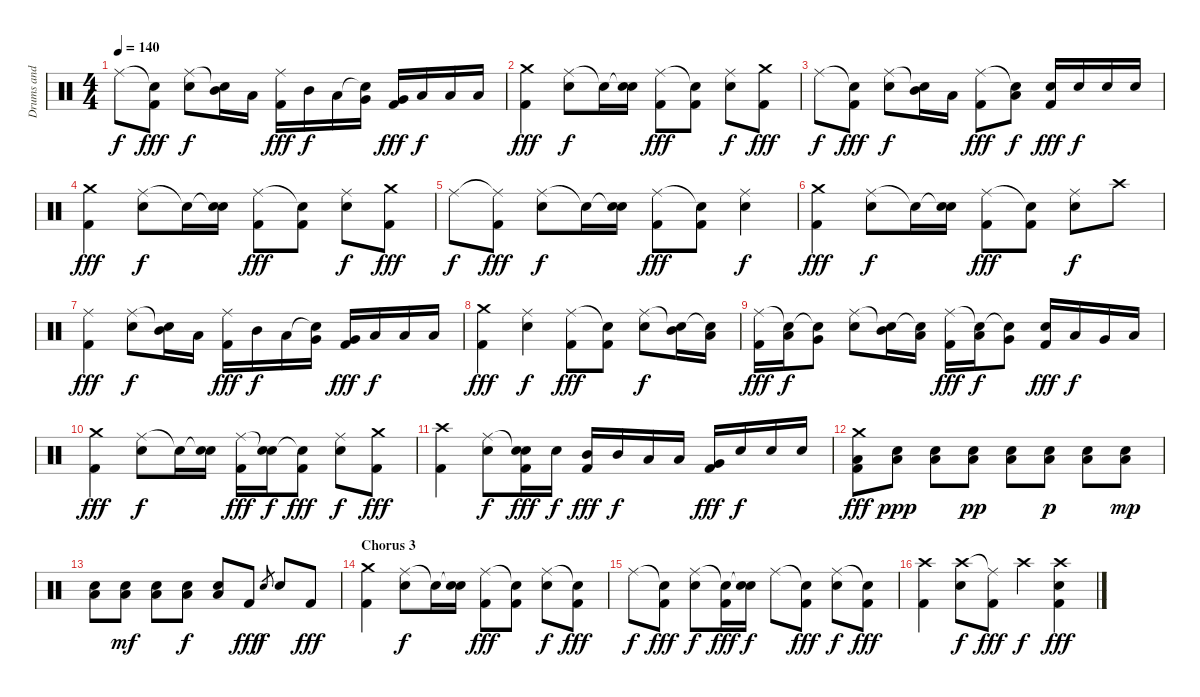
\track ("Drums and Percussion" "Drums and ") {instrument percussion}
\staff {score}
\articulation defaults
\ts (4 4)
\tempo 140
\clef neutral
\ks c "Ride (middle)".8{dy f}
("Snare (hit)"{t} "Kick (hit) 2").8{dy fff} ("Ride (middle)" "Snare (hit) 2").8{dy f} ("Snare (hit)"{t} "Mid Tom (hit)").16 "Low Tom (hit)".16 ("Ride (middle)" "Kick (hit) 2").16{dy fff} "Mid Tom (hit)".16{dy f} "Low Tom (hit)".16 ("Snare (hit)"{t} "Very Low Tom (hit)").16 ("Very Low Tom (hit)" "Kick (hit) 2").16{dy fff} "Low Floor Tom (hit)".16{dy f} "Low Floor Tom (hit)".16 "Low Floor Tom (hit)".16 |
("Crash medium (hit)" "Kick (hit) 2").4{dy fff} ("Ride (middle)" "Snare (hit) 2").8{dy f} "Snare (hit)"{t}.16 ("Snare (hit)"{t} "Snare (hit) 2").16 ("Ride (middle)" "Kick (hit) 2").8{dy fff} ("Snare (hit)"{t} "Kick (hit) 2").8 ("Ride (middle)" "Snare (hit) 2").8{dy f} ("Crash medium (hit)" "Kick (hit) 2").8{dy fff} |
"Ride (middle)".8{dy f} ("Snare (hit)"{t} "Kick (hit) 2").8{dy fff} ("Ride (middle)" "Snare (hit) 2").8{dy f} ("Snare (hit)"{t} "Mid Tom (hit)").16 "Low Tom (hit)".16 ("Ride (middle)" "Kick (hit) 2").8{dy fff} ("Snare (hit)"{t} "Low Tom (hit)").8{dy f} ("Snare (hit) 2" "Kick (hit) 2").16{dy fff} "Snare (hit) 2".16{dy f} "Snare (hit) 2".16 "Snare (hit) 2".16 |
("Crash medium (hit)" "Kick (hit) 2").4{dy fff} ("Ride (middle)" "Snare (hit) 2").8{dy f} "Snare (hit)"{t}.16 ("Snare (hit)"{t} "Snare (hit) 2").16 ("Ride (middle)" "Kick (hit) 2").8{dy fff} ("Snare (hit)"{t} "Kick (hit) 2").8 ("Ride (middle)" "Snare (hit) 2").8{dy f} ("Crash medium (hit)" "Kick (hit) 2").8{dy fff} |
"Ride (middle)".8{dy f} ("Ride (middle)"{t} "Kick (hit) 2").8{dy fff} ("Ride (middle)" "Snare (hit) 2").8{dy f} "Snare (hit)"{t}.16 ("Snare (hit)"{t} "Snare (hit) 2").16 ("Ride (middle)" "Kick (hit) 2").8{dy fff} ("Snare (hit)"{t} "Kick (hit) 2").8 ("Ride (middle)" "Snare (hit) 2").4{dy f} |
("Crash medium (hit)" "Kick (hit) 2").4{dy fff} ("Ride (middle)" "Snare (hit) 2").8{dy f} "Snare (hit)"{t}.16 ("Snare (hit)"{t} "Snare (hit) 2").16 ("Ride (middle)" "Kick (hit) 2").8{dy fff} ("Snare (hit)"{t} "Kick (hit) 2").8 ("Ride (middle)" "Snare (hit) 2").8{dy f} "Crash high (hit)".8 |
("Ride (middle)" "Kick (hit) 2").4{dy fff} ("Ride (middle)" "Snare (hit) 2").8{dy f} ("Snare (hit)"{t} "Mid Tom (hit)").16 "Low Tom (hit)".16 ("Ride (middle)" "Kick (hit) 2").16{dy fff} "Mid Tom (hit)".16{dy f} "Low Tom (hit)".16 ("Snare (hit)"{t} "Very Low Tom (hit)").16 ("Very Low Tom (hit)" "Kick (hit) 2").16{dy fff} "Low Floor Tom (hit)".16{dy f} "Low Floor Tom (hit)".16 "Low Floor Tom (hit)".16 |
("Crash medium (hit)" "Kick (hit) 2").4{dy fff} ("Ride (middle)" "Snare (hit) 2").4{dy f} ("Ride (middle)" "Kick (hit) 2").8{dy fff} ("Snare (hit)"{t} "Kick (hit) 2").8 ("Ride (middle)" "Snare (hit) 2").8{dy f} ("Snare (hit)"{t} "Mid Tom (hit)").16 ("Snare (hit)"{t} "Low Tom (hit)").16 |
("Ride (middle)" "Kick (hit) 2").16{dy fff} ("Snare (hit)"{t} "Low Tom (hit)").16{dy f} ("Snare (hit)"{t} "Very Low Tom (hit)").8 ("Ride (middle)" "Snare (hit) 2").8 ("Snare (hit)"{t} "Mid Tom (hit)").16 ("Snare (hit)"{t} "Low Tom (hit)").16 ("Ride (middle)" "Kick (hit) 2").16{dy fff} ("Snare (hit)"{t} "Low Tom (hit)").16{dy f} ("Snare (hit)"{t} "Very Low Tom (hit)").8 ("Snare (hit) 2" "Kick (hit) 2").16{dy fff} "Low Tom (hit)".16{dy f} "Very Low Tom (hit)".16 "Low Floor Tom (hit)".16 |
("Crash medium (hit)" "Kick (hit) 2").4{dy fff} ("Ride (middle)" "Snare (hit) 2").8{dy f} "Snare (hit)"{t}.16 ("Snare (hit)"{t} "Snare (hit) 2").16 ("Ride (middle)" "Kick (hit) 2").16{dy fff} ("Snare (hit)"{t} "Snare (hit) 2").16{dy f} ("Snare (hit)"{t} "Kick (hit) 2").8{dy fff} ("Ride (middle)" "Snare (hit) 2").8{dy f} ("Crash medium (hit)" "Kick (hit) 2").8{dy fff} |
("Crash high (hit)" "Kick (hit) 2").4 ("Ride (middle)" "Snare (hit) 2").8{dy f} ("Snare (hit)"{t} "Snare (hit) 2" "Kick (hit) 2").16{dy fff} "Snare (hit) 2".16{dy f} ("Mid Tom (hit)" "Kick (hit) 2").16{dy fff} "Mid Tom (hit)".16{dy f} "Low Tom (hit)".16 "Low Tom (hit)".16 ("Very Low Tom (hit)" "Kick (hit) 2").16{dy fff} "Snare (hit) 2".16{dy f} "Snare (hit) 2".16 "Snare (hit) 2".16 |
("Crash medium (hit)" "Low Floor Tom (hit)" "Kick (hit) 2").8{dy fff} ("Snare (hit) 2" "Low Floor Tom (hit)").8{dy ppp} ("Snare (hit) 2" "Low Floor Tom (hit)").8 ("Snare (hit) 2" "Low Floor Tom (hit)").8{dy pp} ("Snare (hit) 2" "Low Floor Tom (hit)").8 ("Snare (hit) 2" "Low Floor Tom (hit)").8{dy p} ("Snare (hit) 2" "Low Floor Tom (hit)").8 ("Snare (hit) 2" "Low Floor Tom (hit)").8{dy mp} |
("Snare (hit) 2" "Low Floor Tom (hit)").8 ("Snare (hit) 2" "Low Floor Tom (hit)").8{dy mf} ("Snare (hit) 2" "Low Floor Tom (hit)").8 ("Snare (hit) 2" "Low Floor Tom (hit)").8{dy f} ("Snare (hit) 2" "Low Floor Tom (hit)").8 "Kick (hit) 2".8{dy fff} "Snare (hit) 2".8{gr dy f} "Snare (hit) 2".8 "Kick (hit) 2".8{dy fff} |
\section ("" "Chorus 3")
("Crash medium (hit)" "Kick (hit) 2").4 ("Ride (middle)" "Snare (hit) 2").8{dy f} "Snare (hit)"{t}.16 ("Snare (hit)"{t} "Snare (hit) 2").16 ("Ride (middle)" "Kick (hit) 2").8{dy fff} ("Snare (hit)"{t} "Kick (hit) 2").8 ("Ride (middle)" "Snare (hit) 2").8{dy f} ("Snare (hit)"{t} "Kick (hit) 2").8{dy fff} |
"Ride (middle)".8{dy f} ("Snare (hit)"{t} "Kick (hit) 2").8{dy fff} ("Ride (middle)" "Snare (hit) 2").8{dy f} ("Snare (hit)"{t} "Kick (hit) 2").16{dy fff} ("Snare (hit)"{t} "Snare (hit) 2").16{dy f} "Ride (middle)".8 ("Snare (hit)"{t} "Kick (hit) 2").8{dy fff} ("Ride (middle)" "Snare (hit) 2").8{dy f} ("Snare (hit)"{t} "Kick (hit) 2").8{dy fff} |
("Crash high (hit)" "Kick (hit) 2").4 ("Crash high (hit)" "Snare (hit) 2").8{dy f} ("Ride (middle)"{t} "Kick (hit) 2").8{dy fff} "Crash high (hit)".4{dy f} ("Crash high (hit)" "Snare (hit) 2" "Kick (hit) 2").4{dy fff}
